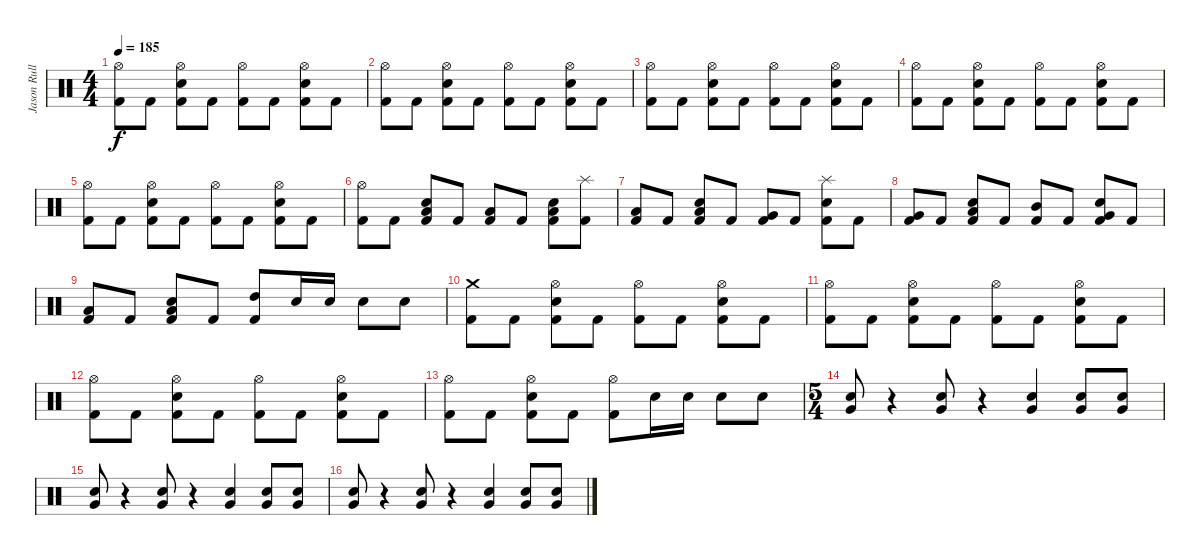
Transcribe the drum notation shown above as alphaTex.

\track ("Jason Rullo" "Jason Rull") {instrument percussion}
\staff {score}
\articulation defaults
\ts (4 4)
\tempo 185
\clef neutral
\ks c
("Hi-Hat (open)" "Kick (hit) 2").8{dy f} "Kick (hit) 2".8 ("Hi-Hat (open)" "Electric Snare (hit)" "Kick (hit) 2").8 "Kick (hit) 2".8 ("Hi-Hat (open)" "Kick (hit) 2").8 "Kick (hit) 2".8 ("Hi-Hat (open)" "Electric Snare (hit)" "Kick (hit) 2").8 "Kick (hit) 2".8 |
("Hi-Hat (open)" "Kick (hit) 2").8 "Kick (hit) 2".8 ("Hi-Hat (open)" "Electric Snare (hit)" "Kick (hit) 2").8 "Kick (hit) 2".8 ("Hi-Hat (open)" "Kick (hit) 2").8 "Kick (hit) 2".8 ("Hi-Hat (open)" "Electric Snare (hit)" "Kick (hit) 2").8 "Kick (hit) 2".8 |
("Hi-Hat (open)" "Kick (hit) 2").8 "Kick (hit) 2".8 ("Hi-Hat (open)" "Electric Snare (hit)" "Kick (hit) 2").8 "Kick (hit) 2".8 ("Hi-Hat (open)" "Kick (hit) 2").8 "Kick (hit) 2".8 ("Hi-Hat (open)" "Electric Snare (hit)" "Kick (hit) 2").8 "Kick (hit) 2".8 |
("Hi-Hat (open)" "Kick (hit) 2").8 "Kick (hit) 2".8 ("Hi-Hat (open)" "Electric Snare (hit)" "Kick (hit) 2").8 "Kick (hit) 2".8 ("Hi-Hat (open)" "Kick (hit) 2").8 "Kick (hit) 2".8 ("Hi-Hat (open)" "Electric Snare (hit)" "Kick (hit) 2").8 "Kick (hit) 2".8 |
("Hi-Hat (open)" "Kick (hit) 2").8 "Kick (hit) 2".8 ("Hi-Hat (open)" "Electric Snare (hit)" "Kick (hit) 2").8 "Kick (hit) 2".8 ("Hi-Hat (open)" "Kick (hit) 2").8 "Kick (hit) 2".8 ("Hi-Hat (open)" "Electric Snare (hit)" "Kick (hit) 2").8 "Kick (hit) 2".8 |
("Hi-Hat (open)" "Kick (hit) 2").8 "Kick (hit) 2".8 ("Low Tom (hit)" "Electric Snare (hit)" "Kick (hit) 2").8 "Kick (hit) 2".8 ("Low Floor Tom (hit)" "Kick (hit) 2").8 "Kick (hit) 2".8 ("Low Tom (hit)" "Electric Snare (hit)" "Kick (hit) 2").8 ("Splash (hit)" "Kick (hit) 2").8 |
("Low Tom (hit)" "Kick (hit) 2").8 "Kick (hit) 2".8 ("Low Tom (hit)" "Electric Snare (hit)" "Kick (hit) 2").8 "Kick (hit) 2".8 ("Very Low Tom (hit)" "Kick (hit) 2").8 "Kick (hit) 2".8 ("Splash (hit)" "Electric Snare (hit)" "Kick (hit) 2").8 "Kick (hit) 2".8 |
("Very Low Tom (hit)" "Kick (hit) 2").8 "Kick (hit) 2".8 ("Low Tom (hit)" "Electric Snare (hit)" "Kick (hit) 2").8 "Kick (hit) 2".8 ("Mid Tom (hit)" "Kick (hit) 2").8 "Kick (hit) 2".8 ("Very Low Tom (hit)" "Electric Snare (hit)" "Kick (hit) 2").8 "Kick (hit) 2".8 |
("Low Tom (hit)" "Kick (hit) 2").8 "Kick (hit) 2".8 ("Low Tom (hit)" "Electric Snare (hit)" "Kick (hit) 2").8 "Kick (hit) 2".8 ("High Tom (hit)" "Kick (hit) 2").8 "Electric Snare (hit)".16 "Electric Snare (hit)".16 "Electric Snare (hit)".8 "Electric Snare (hit)".8 |
("Crash medium (hit)" "Kick (hit) 2").8 "Kick (hit) 2".8 ("Hi-Hat (open)" "Electric Snare (hit)" "Kick (hit) 2").8 "Kick (hit) 2".8 ("Hi-Hat (open)" "Kick (hit) 2").8 "Kick (hit) 2".8 ("Hi-Hat (open)" "Electric Snare (hit)" "Kick (hit) 2").8 "Kick (hit) 2".8 |
("Hi-Hat (open)" "Kick (hit) 2").8 "Kick (hit) 2".8 ("Hi-Hat (open)" "Electric Snare (hit)" "Kick (hit) 2").8 "Kick (hit) 2".8 ("Hi-Hat (open)" "Kick (hit) 2").8 "Kick (hit) 2".8 ("Hi-Hat (open)" "Electric Snare (hit)" "Kick (hit) 2").8 "Kick (hit) 2".8 |
("Hi-Hat (open)" "Kick (hit) 2").8 "Kick (hit) 2".8 ("Hi-Hat (open)" "Electric Snare (hit)" "Kick (hit) 2").8 "Kick (hit) 2".8 ("Hi-Hat (open)" "Kick (hit) 2").8 "Kick (hit) 2".8 ("Hi-Hat (open)" "Electric Snare (hit)" "Kick (hit) 2").8 "Kick (hit) 2".8 |
("Hi-Hat (open)" "Kick (hit) 2").8 "Kick (hit) 2".8 ("Hi-Hat (open)" "Electric Snare (hit)" "Kick (hit) 2").8 "Kick (hit) 2".8 ("Hi-Hat (open)" "Kick (hit) 2").8 "Electric Snare (hit)".16 "Electric Snare (hit)".16 "Electric Snare (hit)".8 "Electric Snare (hit)".8 |
\ts (5 4)
("Very Low Tom (hit)" "Electric Snare (hit)").8 r.4 ("Very Low Tom (hit)" "Electric Snare (hit)").8 r.4 ("Very Low Tom (hit)" "Electric Snare (hit)").4 ("Very Low Tom (hit)" "Electric Snare (hit)").8 ("Very Low Tom (hit)" "Electric Snare (hit)").8 |
("Very Low Tom (hit)" "Electric Snare (hit)").8 r.4 ("Very Low Tom (hit)" "Electric Snare (hit)").8 r.4 ("Very Low Tom (hit)" "Electric Snare (hit)").4 ("Very Low Tom (hit)" "Electric Snare (hit)").8 ("Very Low Tom (hit)" "Electric Snare (hit)").8 |
("Very Low Tom (hit)" "Electric Snare (hit)").8 r.4 ("Very Low Tom (hit)" "Electric Snare (hit)").8 r.4 ("Very Low Tom (hit)" "Electric Snare (hit)").4 ("Very Low Tom (hit)" "Electric Snare (hit)").8 ("Very Low Tom (hit)" "Electric Snare (hit)").8
